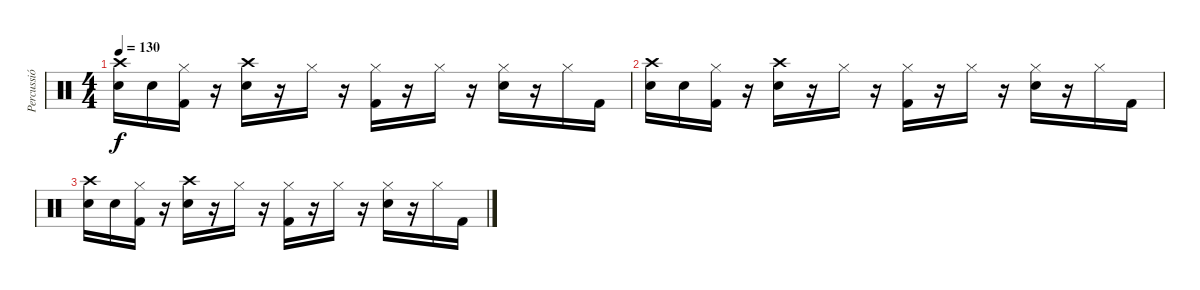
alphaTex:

\track ("Percussió" "Percussió") {instrument percussion}
\staff {score}
\articulation defaults
\ts (4 4)
\tempo 130
\clef neutral
\ks c
("Crash high (hit)" "Snare (hit) 2").16{dy f} "Snare (hit) 2".16 ("Hi-Hat (closed)" "Kick (hit) 2").16 r.16 ("Crash high (hit)" "Snare (hit) 2").16 r.16 "Hi-Hat (closed)".16 r.16 ("Hi-Hat (closed)" "Kick (hit) 2").16 r.16 "Hi-Hat (closed)".16 r.16 ("Hi-Hat (closed)" "Snare (hit) 2").16 r.16 "Hi-Hat (closed)".16 "Kick (hit) 2".16 |
("Crash high (hit)" "Snare (hit) 2").16 "Snare (hit) 2".16 ("Hi-Hat (closed)" "Kick (hit) 2").16 r.16 ("Crash high (hit)" "Snare (hit) 2").16 r.16 "Hi-Hat (closed)".16 r.16 ("Hi-Hat (closed)" "Kick (hit) 2").16 r.16 "Hi-Hat (closed)".16 r.16 ("Hi-Hat (closed)" "Snare (hit) 2").16 r.16 "Hi-Hat (closed)".16 "Kick (hit) 2".16 |
("Crash high (hit)" "Snare (hit) 2").16 "Snare (hit) 2".16 ("Hi-Hat (closed)" "Kick (hit) 2").16 r.16 ("Crash high (hit)" "Snare (hit) 2").16 r.16 "Hi-Hat (closed)".16 r.16 ("Hi-Hat (closed)" "Kick (hit) 2").16 r.16 "Hi-Hat (closed)".16 r.16 ("Hi-Hat (closed)" "Snare (hit) 2").16 r.16 "Hi-Hat (closed)".16 "Kick (hit) 2".16
